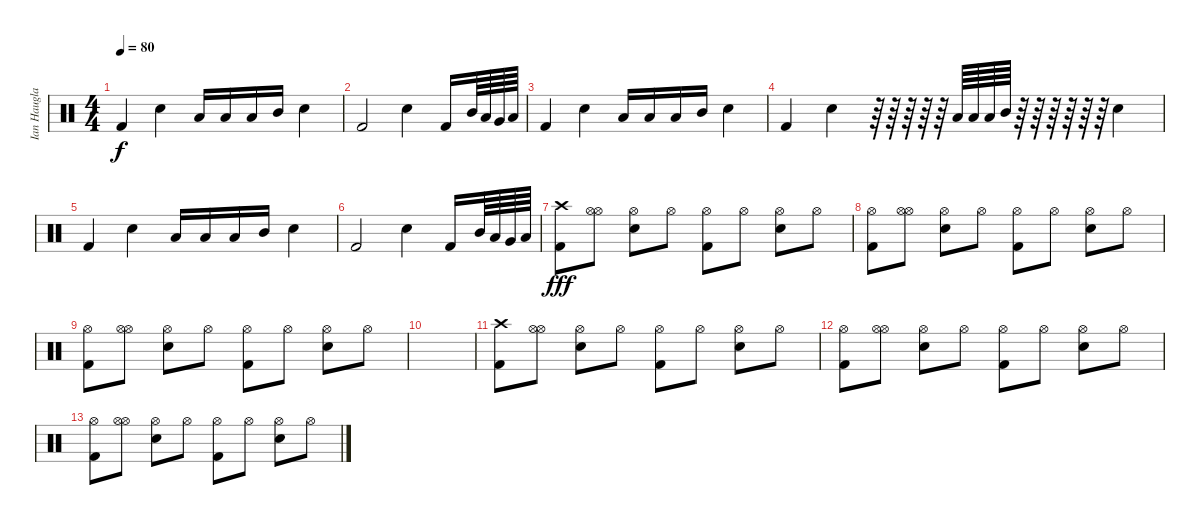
\track ("Ian Haugland" "Ian Haugla") {instrument percussion}
\staff {score}
\articulation defaults
\ts (4 4)
\tempo 80
\clef neutral
\ks c "Kick (hit) 2".4{dy f} "Electric Snare (hit)".4 "Low Floor Tom (hit)".16 "Low Tom (hit)".16 "Low Floor Tom (hit)".16 "Mid Tom (hit)".16 "Electric Snare (hit)".4
|
"Kick (hit) 2".2 "Electric Snare (hit)".4 "Kick (hit) 2".16 "Mid Tom (hit)".64 "Low Tom (hit)".64 "Very Low Tom (hit)".64 "Low Floor Tom (hit)".64 |
"Kick (hit) 2".4 "Electric Snare (hit)".4 "Low Floor Tom (hit)".16 "Low Tom (hit)".16 "Low Floor Tom (hit)".16 "Mid Tom (hit)".16 "Electric Snare (hit)".4 |
"Kick (hit) 2".4 "Electric Snare (hit)".4 r.64 r.64 r.64 r.64 r.64 "Low Floor Tom (hit)".64 "Low Tom (hit)".64 "Low Floor Tom (hit)".64 "Mid Tom (hit)".64 r.64 r.64 r.64 r.64 r.64 r.64 "Electric Snare (hit)".4 |
"Kick (hit) 2".4 "Electric Snare (hit)".4 "Low Floor Tom (hit)".16 "Low Tom (hit)".16 "Low Floor Tom (hit)".16 "Mid Tom (hit)".16 "Electric Snare (hit)".4 |
"Kick (hit) 2".2 "Electric Snare (hit)".4 "Kick (hit) 2".16 "Mid Tom (hit)".64 "Low Tom (hit)".64 "Very Low Tom (hit)".64 "Low Floor Tom (hit)".64 |
("Crash high (hit)" "Kick (hit) 2").8{dy fff} ("Hi-Hat (open)" "Hi-Hat (open)").8 ("Electric Snare (hit)" "Hi-Hat (open)").8 "Hi-Hat (open)".8 ("Hi-Hat (open)" "Kick (hit) 2").8 "Hi-Hat (open)".8 ("Hi-Hat (open)" "Electric Snare (hit)").8 "Hi-Hat (open)".8 |
("Hi-Hat (open)" "Kick (hit) 2").8 ("Hi-Hat (open)" "Hi-Hat (open)").8 ("Electric Snare (hit)" "Hi-Hat (open)").8 "Hi-Hat (open)".8 ("Hi-Hat (open)" "Kick (hit) 2").8 "Hi-Hat (open)".8 ("Hi-Hat (open)" "Electric Snare (hit)").8 "Hi-Hat (open)".8 |
("Hi-Hat (open)" "Kick (hit) 2").8 ("Hi-Hat (open)" "Hi-Hat (open)").8 ("Electric Snare (hit)" "Hi-Hat (open)").8 "Hi-Hat (open)".8 ("Hi-Hat (open)" "Kick (hit) 2").8 "Hi-Hat (open)".8 ("Hi-Hat (open)" "Electric Snare (hit)").8 "Hi-Hat (open)".8 |
|
("Crash high (hit)" "Kick (hit) 2").8 ("Hi-Hat (open)" "Hi-Hat (open)").8 ("Electric Snare (hit)" "Hi-Hat (open)").8 "Hi-Hat (open)".8 ("Hi-Hat (open)" "Kick (hit) 2").8 "Hi-Hat (open)".8 ("Hi-Hat (open)" "Electric Snare (hit)").8 "Hi-Hat (open)".8 |
("Hi-Hat (open)" "Kick (hit) 2").8 ("Hi-Hat (open)" "Hi-Hat (open)").8 ("Electric Snare (hit)" "Hi-Hat (open)").8 "Hi-Hat (open)".8 ("Hi-Hat (open)" "Kick (hit) 2").8 "Hi-Hat (open)".8 ("Hi-Hat (open)" "Electric Snare (hit)").8 "Hi-Hat (open)".8 |
("Hi-Hat (open)" "Kick (hit) 2").8 ("Hi-Hat (open)" "Hi-Hat (open)").8 ("Electric Snare (hit)" "Hi-Hat (open)").8 "Hi-Hat (open)".8 ("Hi-Hat (open)" "Kick (hit) 2").8 "Hi-Hat (open)".8 ("Hi-Hat (open)" "Electric Snare (hit)").8 "Hi-Hat (open)".8
